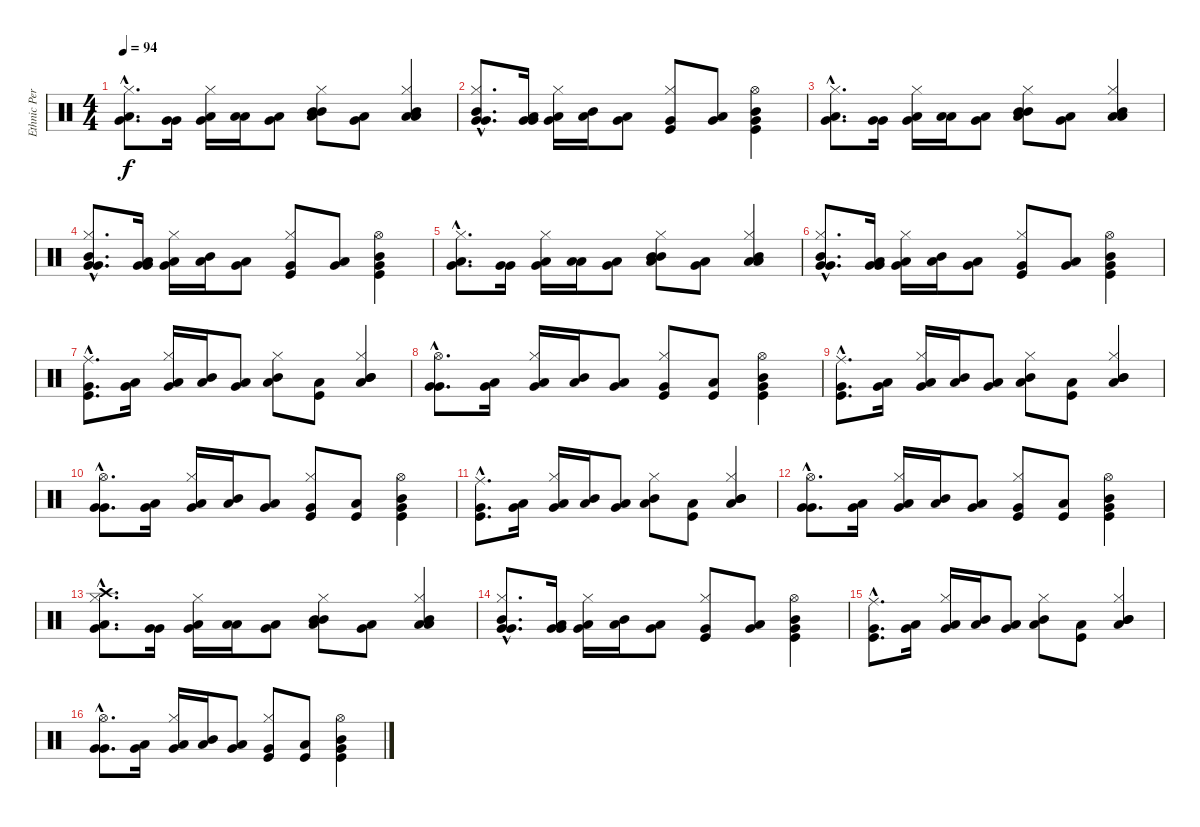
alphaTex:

\track ("Ethnic Percussion" "Ethnic Per") {instrument percussion}
\staff {score}
\articulation defaults
\ts (4 4)
\tempo 94
\clef neutral
\ks c
("Very Low Tom (hit)"{hac} "Low Floor Tom (hit)"{hac} "Hi-Hat (closed)"{hac}).8{d dy f} ("Very Low Tom (hit)" "Very Low Tom (hit)").16 ("Very Low Tom (hit)" "Low Floor Tom (hit)" "Hi-Hat (closed)").16 ("Low Tom (hit)" "Low Tom (hit)").16 ("Very Low Tom (hit)" "Low Floor Tom (hit)").8 ("Mid Tom (hit)" "Low Tom (hit)" "Mid Tom (hit)" "Hi-Hat (closed)").8 ("Low Tom (hit)" "Very Low Tom (hit)").8 ("Mid Tom (hit)" "Low Floor Tom (hit)" "Low Tom (hit)" "Hi-Hat (closed)").4 |
("Very Low Tom (hit)"{hac} "Very Low Tom (hit)"{hac} "Mid Tom (hit)"{hac} "Hi-Hat (closed)"{hac}).8{d} ("Very Low Tom (hit)" "Very Low Tom (hit)" "Low Floor Tom (hit)").16 ("Very Low Tom (hit)" "Low Floor Tom (hit)" "Hi-Hat (closed)").16 ("Mid Tom (hit)" "Low Tom (hit)").16 ("Very Low Tom (hit)" "Low Tom (hit)").8 ("Kick (hit)" "Very Low Tom (hit)" "Hi-Hat (closed)").8 ("Low Tom (hit)" "Very Low Tom (hit)").8 ("Very Low Tom (hit)" "Kick (hit)" "Hi-Hat (open)" "Mid Tom (hit)").4 |
("Very Low Tom (hit)"{hac} "Low Floor Tom (hit)"{hac} "Hi-Hat (closed)"{hac}).8{d} ("Very Low Tom (hit)" "Very Low Tom (hit)").16 ("Very Low Tom (hit)" "Low Floor Tom (hit)" "Hi-Hat (closed)").16 ("Low Tom (hit)" "Low Tom (hit)").16 ("Very Low Tom (hit)" "Low Floor Tom (hit)").8 ("Mid Tom (hit)" "Low Tom (hit)" "Mid Tom (hit)" "Hi-Hat (closed)").8 ("Low Tom (hit)" "Very Low Tom (hit)").8 ("Mid Tom (hit)" "Low Floor Tom (hit)" "Low Tom (hit)" "Hi-Hat (closed)").4 |
("Very Low Tom (hit)"{hac} "Very Low Tom (hit)"{hac} "Mid Tom (hit)"{hac} "Hi-Hat (closed)"{hac}).8{d} ("Very Low Tom (hit)" "Very Low Tom (hit)" "Low Floor Tom (hit)").16 ("Very Low Tom (hit)" "Low Floor Tom (hit)" "Hi-Hat (closed)").16 ("Mid Tom (hit)" "Low Tom (hit)").16 ("Very Low Tom (hit)" "Low Tom (hit)").8 ("Kick (hit)" "Very Low Tom (hit)" "Hi-Hat (closed)").8 ("Low Tom (hit)" "Very Low Tom (hit)").8 ("Very Low Tom (hit)" "Kick (hit)" "Hi-Hat (open)" "Mid Tom (hit)").4 |
("Very Low Tom (hit)"{hac} "Low Floor Tom (hit)"{hac} "Hi-Hat (closed)"{hac}).8{d} ("Very Low Tom (hit)" "Very Low Tom (hit)").16 ("Very Low Tom (hit)" "Low Floor Tom (hit)" "Hi-Hat (closed)").16 ("Low Tom (hit)" "Low Tom (hit)").16 ("Very Low Tom (hit)" "Low Floor Tom (hit)").8 ("Mid Tom (hit)" "Low Tom (hit)" "Mid Tom (hit)" "Hi-Hat (closed)").8 ("Low Tom (hit)" "Very Low Tom (hit)").8 ("Mid Tom (hit)" "Low Floor Tom (hit)" "Low Tom (hit)" "Hi-Hat (closed)").4 |
("Very Low Tom (hit)"{hac} "Very Low Tom (hit)"{hac} "Mid Tom (hit)"{hac} "Hi-Hat (closed)"{hac}).8{d} ("Very Low Tom (hit)" "Very Low Tom (hit)" "Low Floor Tom (hit)").16 ("Very Low Tom (hit)" "Low Floor Tom (hit)" "Hi-Hat (closed)").16 ("Mid Tom (hit)" "Low Tom (hit)").16 ("Very Low Tom (hit)" "Low Tom (hit)").8 ("Kick (hit)" "Very Low Tom (hit)" "Hi-Hat (closed)").8 ("Low Tom (hit)" "Very Low Tom (hit)").8 ("Very Low Tom (hit)" "Kick (hit)" "Hi-Hat (open)" "Mid Tom (hit)").4 |
("Ride (middle)"{hac} "Very Low Tom (hit)"{hac} "Kick (hit)"{hac}).8{d} ("Low Floor Tom (hit)" "Very Low Tom (hit)").16 ("Very Low Tom (hit)" "Low Tom (hit)" "Hi-Hat (closed)").16 ("Mid Tom (hit)" "Low Tom (hit)").16 ("Very Low Tom (hit)" "Low Tom (hit)").8 ("Mid Tom (hit)" "Low Tom (hit)" "Hi-Hat (closed)").8 ("Low Tom (hit)" "Kick (hit)").8 ("Mid Tom (hit)" "Low Floor Tom (hit)" "Mid Tom (hit)" "Hi-Hat (closed)").4 |
("Hi-Hat (open)"{hac} "Very Low Tom (hit)"{hac} "Very Low Tom (hit)"{hac}).8{d} ("Low Tom (hit)" "Very Low Tom (hit)").16 ("Very Low Tom (hit)" "Low Tom (hit)" "Hi-Hat (closed)").16 ("Mid Tom (hit)" "Low Tom (hit)").16 ("Very Low Tom (hit)" "Low Tom (hit)").8 ("Kick (hit)" "Very Low Tom (hit)" "Hi-Hat (closed)").8 ("Low Tom (hit)" "Kick (hit)").8 ("Very Low Tom (hit)" "Kick (hit)" "Hi-Hat (open)" "Mid Tom (hit)").4 |
("Ride (middle)"{hac} "Very Low Tom (hit)"{hac} "Kick (hit)"{hac}).8{d} ("Low Floor Tom (hit)" "Very Low Tom (hit)").16 ("Very Low Tom (hit)" "Low Tom (hit)" "Hi-Hat (closed)").16 ("Mid Tom (hit)" "Low Tom (hit)").16 ("Very Low Tom (hit)" "Low Tom (hit)").8 ("Mid Tom (hit)" "Low Tom (hit)" "Hi-Hat (closed)").8 ("Low Tom (hit)" "Kick (hit)").8 ("Mid Tom (hit)" "Low Floor Tom (hit)" "Mid Tom (hit)" "Hi-Hat (closed)").4 |
("Hi-Hat (open)"{hac} "Very Low Tom (hit)"{hac} "Very Low Tom (hit)"{hac}).8{d} ("Low Tom (hit)" "Very Low Tom (hit)").16 ("Very Low Tom (hit)" "Low Tom (hit)" "Hi-Hat (closed)").16 ("Mid Tom (hit)" "Low Tom (hit)").16 ("Very Low Tom (hit)" "Low Tom (hit)").8 ("Kick (hit)" "Very Low Tom (hit)" "Hi-Hat (closed)").8 ("Low Tom (hit)" "Kick (hit)").8 ("Very Low Tom (hit)" "Kick (hit)" "Hi-Hat (open)" "Mid Tom (hit)").4 |
("Ride (middle)"{hac} "Very Low Tom (hit)"{hac} "Kick (hit)"{hac}).8{d} ("Low Floor Tom (hit)" "Very Low Tom (hit)").16 ("Very Low Tom (hit)" "Low Tom (hit)" "Hi-Hat (closed)").16 ("Mid Tom (hit)" "Low Tom (hit)").16 ("Very Low Tom (hit)" "Low Tom (hit)").8 ("Mid Tom (hit)" "Low Tom (hit)" "Hi-Hat (closed)").8 ("Low Tom (hit)" "Kick (hit)").8 ("Mid Tom (hit)" "Low Floor Tom (hit)" "Mid Tom (hit)" "Hi-Hat (closed)").4 |
("Hi-Hat (open)"{hac} "Very Low Tom (hit)"{hac} "Very Low Tom (hit)"{hac}).8{d} ("Low Tom (hit)" "Very Low Tom (hit)").16 ("Very Low Tom (hit)" "Low Tom (hit)" "Hi-Hat (closed)").16 ("Mid Tom (hit)" "Low Tom (hit)").16 ("Very Low Tom (hit)" "Low Tom (hit)").8 ("Kick (hit)" "Very Low Tom (hit)" "Hi-Hat (closed)").8 ("Low Tom (hit)" "Kick (hit)").8 ("Very Low Tom (hit)" "Kick (hit)" "Hi-Hat (open)" "Mid Tom (hit)").4 |
("Crash high (hit)"{hac} "Very Low Tom (hit)"{hac} "Low Floor Tom (hit)"{hac} "Hi-Hat (closed)"{hac}).8{d} ("Very Low Tom (hit)" "Very Low Tom (hit)").16 ("Very Low Tom (hit)" "Low Floor Tom (hit)" "Hi-Hat (closed)").16 ("Low Tom (hit)" "Low Tom (hit)").16 ("Very Low Tom (hit)" "Low Floor Tom (hit)").8 ("Mid Tom (hit)" "Low Tom (hit)" "Mid Tom (hit)" "Hi-Hat (closed)").8 ("Low Tom (hit)" "Very Low Tom (hit)").8 ("Mid Tom (hit)" "Low Floor Tom (hit)" "Low Tom (hit)" "Hi-Hat (closed)").4 |
("Very Low Tom (hit)"{hac} "Very Low Tom (hit)"{hac} "Mid Tom (hit)"{hac} "Hi-Hat (closed)"{hac}).8{d} ("Very Low Tom (hit)" "Very Low Tom (hit)" "Low Floor Tom (hit)").16 ("Very Low Tom (hit)" "Low Floor Tom (hit)" "Hi-Hat (closed)").16 ("Mid Tom (hit)" "Low Tom (hit)").16 ("Very Low Tom (hit)" "Low Tom (hit)").8 ("Kick (hit)" "Very Low Tom (hit)" "Hi-Hat (closed)").8 ("Low Tom (hit)" "Very Low Tom (hit)").8 ("Very Low Tom (hit)" "Kick (hit)" "Hi-Hat (open)" "Mid Tom (hit)").4 |
("Ride (middle)"{hac} "Very Low Tom (hit)"{hac} "Kick (hit)"{hac}).8{d} ("Low Floor Tom (hit)" "Very Low Tom (hit)").16 ("Very Low Tom (hit)" "Low Tom (hit)" "Hi-Hat (closed)").16 ("Mid Tom (hit)" "Low Tom (hit)").16 ("Very Low Tom (hit)" "Low Tom (hit)").8 ("Mid Tom (hit)" "Low Tom (hit)" "Hi-Hat (closed)").8 ("Low Tom (hit)" "Kick (hit)").8 ("Mid Tom (hit)" "Low Floor Tom (hit)" "Mid Tom (hit)" "Hi-Hat (closed)").4 |
("Hi-Hat (open)"{hac} "Very Low Tom (hit)"{hac} "Very Low Tom (hit)"{hac}).8{d} ("Low Tom (hit)" "Very Low Tom (hit)").16 ("Very Low Tom (hit)" "Low Tom (hit)" "Hi-Hat (closed)").16 ("Mid Tom (hit)" "Low Tom (hit)").16 ("Very Low Tom (hit)" "Low Tom (hit)").8 ("Kick (hit)" "Very Low Tom (hit)" "Hi-Hat (closed)").8 ("Low Tom (hit)" "Kick (hit)").8 ("Very Low Tom (hit)" "Kick (hit)" "Hi-Hat (open)" "Mid Tom (hit)").4
